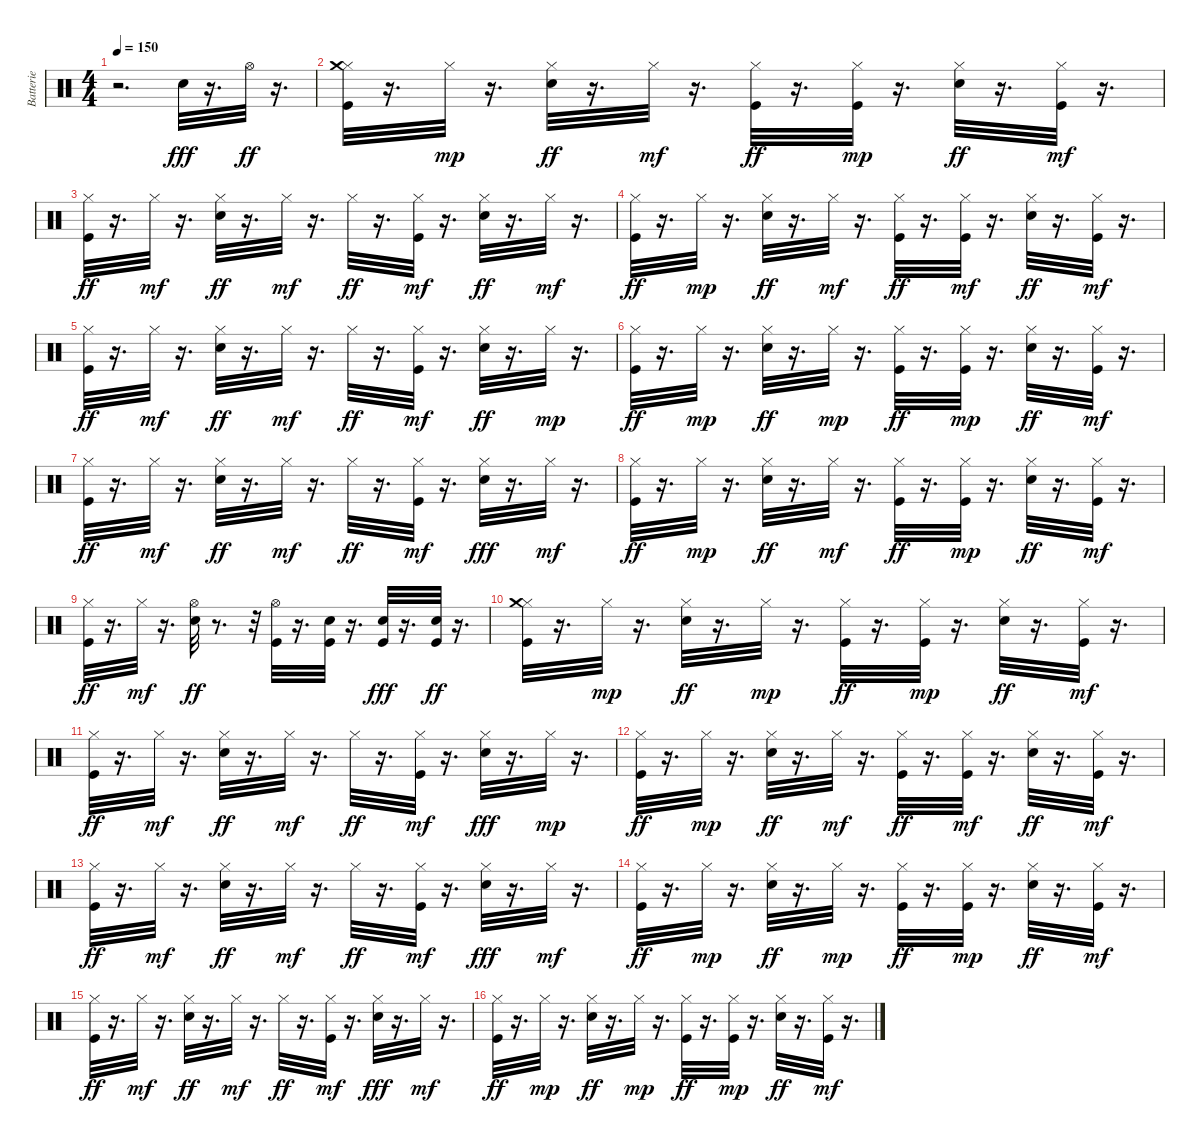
\track ("Batterie" "Batterie") {instrument percussion}
\staff {score}
\articulation defaults
\ts (4 4)
\tempo 150
\clef neutral
\ks c
r.2{d dy fff} "Snare (hit) 2".32 r.16{d} "Hi-Hat (open)".32{dy ff} r.16{d} |
("Kick (hit)" "Hi-Hat (closed)" "Crash medium (hit)").32 r.16{d} "Hi-Hat (closed)".32{dy mp} r.16{d} ("Snare (hit) 2" "Hi-Hat (closed)").32{dy ff} r.16{d} "Hi-Hat (closed)".32{dy mf} r.16{d} ("Kick (hit)" "Hi-Hat (closed)").32{dy ff} r.16{d} ("Kick (hit)" "Hi-Hat (closed)").32{dy mp} r.16{d} ("Snare (hit) 2" "Hi-Hat (closed)").32{dy ff} r.16{d} ("Kick (hit)" "Hi-Hat (closed)").32{dy mf} r.16{d} |
("Kick (hit)" "Hi-Hat (closed)").32{dy ff} r.16{d} "Hi-Hat (closed)".32{dy mf} r.16{d} ("Snare (hit) 2" "Hi-Hat (closed)").32{dy ff} r.16{d} "Hi-Hat (closed)".32{dy mf} r.16{d} "Hi-Hat (closed)".32{dy ff} r.16{d} ("Kick (hit)" "Hi-Hat (closed)").32{dy mf} r.16{d} ("Snare (hit) 2" "Hi-Hat (closed)").32{dy ff} r.16{d} "Hi-Hat (closed)".32{dy mf} r.16{d} |
("Kick (hit)" "Hi-Hat (closed)").32{dy ff} r.16{d} "Hi-Hat (closed)".32{dy mp} r.16{d} ("Snare (hit) 2" "Hi-Hat (closed)").32{dy ff} r.16{d} "Hi-Hat (closed)".32{dy mf} r.16{d} ("Kick (hit)" "Hi-Hat (closed)").32{dy ff} r.16{d} ("Kick (hit)" "Hi-Hat (closed)").32{dy mf} r.16{d} ("Snare (hit) 2" "Hi-Hat (closed)").32{dy ff} r.16{d} ("Kick (hit)" "Hi-Hat (closed)").32{dy mf} r.16{d} |
("Kick (hit)" "Hi-Hat (closed)").32{dy ff} r.16{d} "Hi-Hat (closed)".32{dy mf} r.16{d} ("Snare (hit) 2" "Hi-Hat (closed)").32{dy ff} r.16{d} "Hi-Hat (closed)".32{dy mf} r.16{d} "Hi-Hat (closed)".32{dy ff} r.16{d} ("Kick (hit)" "Hi-Hat (closed)").32{dy mf} r.16{d} ("Snare (hit) 2" "Hi-Hat (closed)").32{dy ff} r.16{d} "Hi-Hat (closed)".32{dy mp} r.16{d} |
("Kick (hit)" "Hi-Hat (closed)").32{dy ff} r.16{d} "Hi-Hat (closed)".32{dy mp} r.16{d} ("Snare (hit) 2" "Hi-Hat (closed)").32{dy ff} r.16{d} "Hi-Hat (closed)".32{dy mp} r.16{d} ("Kick (hit)" "Hi-Hat (closed)").32{dy ff} r.16{d} ("Kick (hit)" "Hi-Hat (closed)").32{dy mp} r.16{d} ("Snare (hit) 2" "Hi-Hat (closed)").32{dy ff} r.16{d} ("Kick (hit)" "Hi-Hat (closed)").32{dy mf} r.16{d} |
("Kick (hit)" "Hi-Hat (closed)").32{dy ff} r.16{d} "Hi-Hat (closed)".32{dy mf} r.16{d} ("Snare (hit) 2" "Hi-Hat (closed)").32{dy ff} r.16{d} "Hi-Hat (closed)".32{dy mf} r.16{d} "Hi-Hat (closed)".32{dy ff} r.16{d} ("Kick (hit)" "Hi-Hat (closed)").32{dy mf} r.16{d} ("Snare (hit) 2" "Hi-Hat (closed)").32{dy fff} r.16{d} "Hi-Hat (closed)".32{dy mf} r.16{d} |
("Kick (hit)" "Hi-Hat (closed)").32{dy ff} r.16{d} "Hi-Hat (closed)".32{dy mp} r.16{d} ("Snare (hit) 2" "Hi-Hat (closed)").32{dy ff} r.16{d} "Hi-Hat (closed)".32{dy mf} r.16{d} ("Kick (hit)" "Hi-Hat (closed)").32{dy ff} r.16{d} ("Kick (hit)" "Hi-Hat (closed)").32{dy mp} r.16{d} ("Snare (hit) 2" "Hi-Hat (closed)").32{dy ff} r.16{d} ("Kick (hit)" "Hi-Hat (closed)").32{dy mf} r.16{d} |
("Kick (hit)" "Hi-Hat (closed)").32{dy ff} r.16{d} "Hi-Hat (closed)".32{dy mf} r.16{d} ("Snare (hit) 2" "Hi-Hat (open)").32{dy ff} r.8{d} r.32 ("Kick (hit)" "Hi-Hat (open)").32 r.16{d} ("Kick (hit)" "Snare (hit) 2").32 r.16{d} ("Kick (hit)" "Snare (hit) 2").32{dy fff} r.16{d} ("Kick (hit)" "Snare (hit) 2").32{dy ff} r.16{d} |
("Kick (hit)" "Hi-Hat (closed)" "Crash medium (hit)").32 r.16{d} "Hi-Hat (closed)".32{dy mp} r.16{d} ("Snare (hit) 2" "Hi-Hat (closed)").32{dy ff} r.16{d} "Hi-Hat (closed)".32{dy mp} r.16{d} ("Kick (hit)" "Hi-Hat (closed)").32{dy ff} r.16{d} ("Kick (hit)" "Hi-Hat (closed)").32{dy mp} r.16{d} ("Snare (hit) 2" "Hi-Hat (closed)").32{dy ff} r.16{d} ("Kick (hit)" "Hi-Hat (closed)").32{dy mf} r.16{d} |
("Kick (hit)" "Hi-Hat (closed)").32{dy ff} r.16{d} "Hi-Hat (closed)".32{dy mf} r.16{d} ("Snare (hit) 2" "Hi-Hat (closed)").32{dy ff} r.16{d} "Hi-Hat (closed)".32{dy mf} r.16{d} "Hi-Hat (closed)".32{dy ff} r.16{d} ("Kick (hit)" "Hi-Hat (closed)").32{dy mf} r.16{d} ("Snare (hit) 2" "Hi-Hat (closed)").32{dy fff} r.16{d} "Hi-Hat (closed)".32{dy mp} r.16{d} |
("Kick (hit)" "Hi-Hat (closed)").32{dy ff} r.16{d} "Hi-Hat (closed)".32{dy mp} r.16{d} ("Snare (hit) 2" "Hi-Hat (closed)").32{dy ff} r.16{d} "Hi-Hat (closed)".32{dy mf} r.16{d} ("Kick (hit)" "Hi-Hat (closed)").32{dy ff} r.16{d} ("Kick (hit)" "Hi-Hat (closed)").32{dy mf} r.16{d} ("Snare (hit) 2" "Hi-Hat (closed)").32{dy ff} r.16{d} ("Kick (hit)" "Hi-Hat (closed)").32{dy mf} r.16{d} |
("Kick (hit)" "Hi-Hat (closed)").32{dy ff} r.16{d} "Hi-Hat (closed)".32{dy mf} r.16{d} ("Snare (hit) 2" "Hi-Hat (closed)").32{dy ff} r.16{d} "Hi-Hat (closed)".32{dy mf} r.16{d} "Hi-Hat (closed)".32{dy ff} r.16{d} ("Kick (hit)" "Hi-Hat (closed)").32{dy mf} r.16{d} ("Snare (hit) 2" "Hi-Hat (closed)").32{dy fff} r.16{d} "Hi-Hat (closed)".32{dy mf} r.16{d} |
("Kick (hit)" "Hi-Hat (closed)").32{dy ff} r.16{d} "Hi-Hat (closed)".32{dy mp} r.16{d} ("Snare (hit) 2" "Hi-Hat (closed)").32{dy ff} r.16{d} "Hi-Hat (closed)".32{dy mp} r.16{d} ("Kick (hit)" "Hi-Hat (closed)").32{dy ff} r.16{d} ("Kick (hit)" "Hi-Hat (closed)").32{dy mp} r.16{d} ("Snare (hit) 2" "Hi-Hat (closed)").32{dy ff} r.16{d} ("Kick (hit)" "Hi-Hat (closed)").32{dy mf} r.16{d} |
("Kick (hit)" "Hi-Hat (closed)").32{dy ff} r.16{d} "Hi-Hat (closed)".32{dy mf} r.16{d} ("Snare (hit) 2" "Hi-Hat (closed)").32{dy ff} r.16{d} "Hi-Hat (closed)".32{dy mf} r.16{d} "Hi-Hat (closed)".32{dy ff} r.16{d} ("Kick (hit)" "Hi-Hat (closed)").32{dy mf} r.16{d} ("Snare (hit) 2" "Hi-Hat (closed)").32{dy fff} r.16{d} "Hi-Hat (closed)".32{dy mf} r.16{d} |
("Kick (hit)" "Hi-Hat (closed)").32{dy ff} r.16{d} "Hi-Hat (closed)".32{dy mp} r.16{d} ("Snare (hit) 2" "Hi-Hat (closed)").32{dy ff} r.16{d} "Hi-Hat (closed)".32{dy mp} r.16{d} ("Kick (hit)" "Hi-Hat (closed)").32{dy ff} r.16{d} ("Kick (hit)" "Hi-Hat (closed)").32{dy mp} r.16{d} ("Snare (hit) 2" "Hi-Hat (closed)").32{dy ff} r.16{d} ("Kick (hit)" "Hi-Hat (closed)").32{dy mf} r.16{d}
